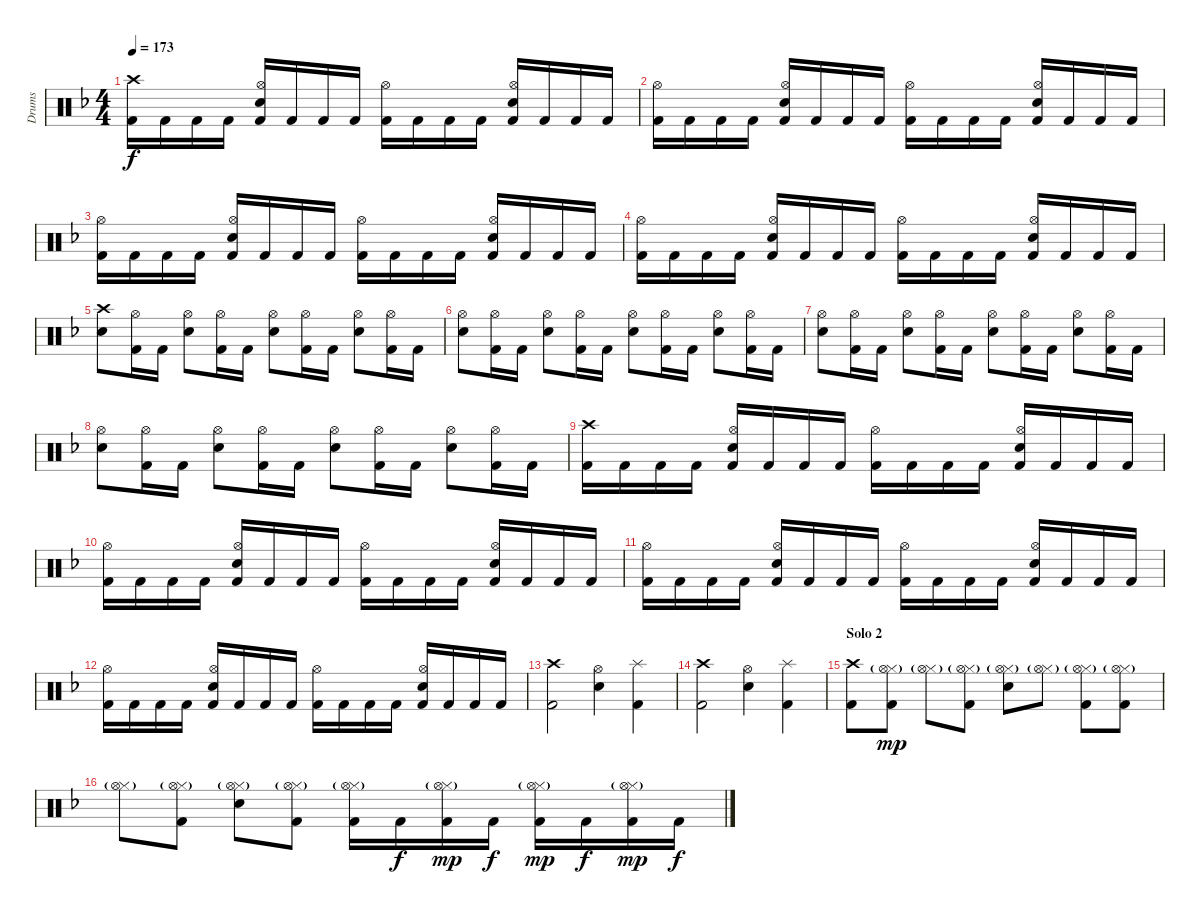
\track ("Drums" "Drums") {instrument percussion}
\staff {score}
\articulation defaults
\ts (4 4)
\tempo 173
\clef neutral
\ks dminor
("Crash high (hit)" "Kick (hit) 2").16{dy f} "Kick (hit) 2".16 "Kick (hit) 2".16 "Kick (hit) 2".16 ("Hi-Hat (open)" "Snare (hit) 2" "Kick (hit) 2").16 "Kick (hit) 2".16 "Kick (hit) 2".16 "Kick (hit) 2".16 ("Hi-Hat (open)" "Kick (hit) 2").16 "Kick (hit) 2".16 "Kick (hit) 2".16 "Kick (hit) 2".16 ("Hi-Hat (open)" "Snare (hit) 2" "Kick (hit) 2").16 "Kick (hit) 2".16 "Kick (hit) 2".16 "Kick (hit) 2".16 |
("Hi-Hat (open)" "Kick (hit) 2").16 "Kick (hit) 2".16 "Kick (hit) 2".16 "Kick (hit) 2".16 ("Hi-Hat (open)" "Snare (hit) 2" "Kick (hit) 2").16 "Kick (hit) 2".16 "Kick (hit) 2".16 "Kick (hit) 2".16 ("Hi-Hat (open)" "Kick (hit) 2").16 "Kick (hit) 2".16 "Kick (hit) 2".16 "Kick (hit) 2".16 ("Hi-Hat (open)" "Snare (hit) 2" "Kick (hit) 2").16 "Kick (hit) 2".16 "Kick (hit) 2".16 "Kick (hit) 2".16 |
("Hi-Hat (open)" "Kick (hit) 2").16 "Kick (hit) 2".16 "Kick (hit) 2".16 "Kick (hit) 2".16 ("Hi-Hat (open)" "Snare (hit) 2" "Kick (hit) 2").16 "Kick (hit) 2".16 "Kick (hit) 2".16 "Kick (hit) 2".16 ("Hi-Hat (open)" "Kick (hit) 2").16 "Kick (hit) 2".16 "Kick (hit) 2".16 "Kick (hit) 2".16 ("Hi-Hat (open)" "Snare (hit) 2" "Kick (hit) 2").16 "Kick (hit) 2".16 "Kick (hit) 2".16 "Kick (hit) 2".16 |
("Hi-Hat (open)" "Kick (hit) 2").16 "Kick (hit) 2".16 "Kick (hit) 2".16 "Kick (hit) 2".16 ("Hi-Hat (open)" "Snare (hit) 2" "Kick (hit) 2").16 "Kick (hit) 2".16 "Kick (hit) 2".16 "Kick (hit) 2".16 ("Hi-Hat (open)" "Kick (hit) 2").16 "Kick (hit) 2".16 "Kick (hit) 2".16 "Kick (hit) 2".16 ("Hi-Hat (open)" "Snare (hit) 2" "Kick (hit) 2").16 "Kick (hit) 2".16 "Kick (hit) 2".16 "Kick (hit) 2".16 |
("Crash high (hit)" "Snare (hit) 2").8 ("Hi-Hat (open)" "Kick (hit) 2").16 "Kick (hit) 2".16 ("Hi-Hat (open)" "Snare (hit) 2").8 ("Hi-Hat (open)" "Kick (hit) 2").16 "Kick (hit) 2".16 ("Hi-Hat (open)" "Snare (hit) 2").8 ("Hi-Hat (open)" "Kick (hit) 2").16 "Kick (hit) 2".16 ("Hi-Hat (open)" "Snare (hit) 2").8 ("Hi-Hat (open)" "Kick (hit) 2").16 "Kick (hit) 2".16 |
("Hi-Hat (open)" "Snare (hit) 2").8 ("Hi-Hat (open)" "Kick (hit) 2").16 "Kick (hit) 2".16 ("Hi-Hat (open)" "Snare (hit) 2").8 ("Hi-Hat (open)" "Kick (hit) 2").16 "Kick (hit) 2".16 ("Hi-Hat (open)" "Snare (hit) 2").8 ("Hi-Hat (open)" "Kick (hit) 2").16 "Kick (hit) 2".16 ("Hi-Hat (open)" "Snare (hit) 2").8 ("Hi-Hat (open)" "Kick (hit) 2").16 "Kick (hit) 2".16 |
("Hi-Hat (open)" "Snare (hit) 2").8 ("Hi-Hat (open)" "Kick (hit) 2").16 "Kick (hit) 2".16 ("Hi-Hat (open)" "Snare (hit) 2").8 ("Hi-Hat (open)" "Kick (hit) 2").16 "Kick (hit) 2".16 ("Hi-Hat (open)" "Snare (hit) 2").8 ("Hi-Hat (open)" "Kick (hit) 2").16 "Kick (hit) 2".16 ("Hi-Hat (open)" "Snare (hit) 2").8 ("Hi-Hat (open)" "Kick (hit) 2").16 "Kick (hit) 2".16 |
("Hi-Hat (open)" "Snare (hit) 2").8 ("Hi-Hat (open)" "Kick (hit) 2").16 "Kick (hit) 2".16 ("Hi-Hat (open)" "Snare (hit) 2").8 ("Hi-Hat (open)" "Kick (hit) 2").16 "Kick (hit) 2".16 ("Hi-Hat (open)" "Snare (hit) 2").8 ("Hi-Hat (open)" "Kick (hit) 2").16 "Kick (hit) 2".16 ("Hi-Hat (open)" "Snare (hit) 2").8 ("Hi-Hat (open)" "Kick (hit) 2").16 "Kick (hit) 2".16 |
("Crash high (hit)" "Kick (hit) 2").16 "Kick (hit) 2".16 "Kick (hit) 2".16 "Kick (hit) 2".16 ("Hi-Hat (open)" "Snare (hit) 2" "Kick (hit) 2").16 "Kick (hit) 2".16 "Kick (hit) 2".16 "Kick (hit) 2".16 ("Hi-Hat (open)" "Kick (hit) 2").16 "Kick (hit) 2".16 "Kick (hit) 2".16 "Kick (hit) 2".16 ("Hi-Hat (open)" "Snare (hit) 2" "Kick (hit) 2").16 "Kick (hit) 2".16 "Kick (hit) 2".16 "Kick (hit) 2".16 |
("Hi-Hat (open)" "Kick (hit) 2").16 "Kick (hit) 2".16 "Kick (hit) 2".16 "Kick (hit) 2".16 ("Hi-Hat (open)" "Snare (hit) 2" "Kick (hit) 2").16 "Kick (hit) 2".16 "Kick (hit) 2".16 "Kick (hit) 2".16 ("Hi-Hat (open)" "Kick (hit) 2").16 "Kick (hit) 2".16 "Kick (hit) 2".16 "Kick (hit) 2".16 ("Hi-Hat (open)" "Snare (hit) 2" "Kick (hit) 2").16 "Kick (hit) 2".16 "Kick (hit) 2".16 "Kick (hit) 2".16 |
("Hi-Hat (open)" "Kick (hit) 2").16 "Kick (hit) 2".16 "Kick (hit) 2".16 "Kick (hit) 2".16 ("Hi-Hat (open)" "Snare (hit) 2" "Kick (hit) 2").16 "Kick (hit) 2".16 "Kick (hit) 2".16 "Kick (hit) 2".16 ("Hi-Hat (open)" "Kick (hit) 2").16 "Kick (hit) 2".16 "Kick (hit) 2".16 "Kick (hit) 2".16 ("Hi-Hat (open)" "Snare (hit) 2" "Kick (hit) 2").16 "Kick (hit) 2".16 "Kick (hit) 2".16 "Kick (hit) 2".16 |
("Hi-Hat (open)" "Kick (hit) 2").16 "Kick (hit) 2".16 "Kick (hit) 2".16 "Kick (hit) 2".16 ("Hi-Hat (open)" "Snare (hit) 2" "Kick (hit) 2").16 "Kick (hit) 2".16 "Kick (hit) 2".16 "Kick (hit) 2".16 ("Hi-Hat (open)" "Kick (hit) 2").16 "Kick (hit) 2".16 "Kick (hit) 2".16 "Kick (hit) 2".16 ("Hi-Hat (open)" "Snare (hit) 2" "Kick (hit) 2").16 "Kick (hit) 2".16 "Kick (hit) 2".16 "Kick (hit) 2".16 |
("Crash high (hit)" "Kick (hit) 2").2 ("Hi-Hat (open)" "Snare (hit) 2").4 ("Splash (hit)" "Kick (hit) 2").4 |
("Crash high (hit)" "Kick (hit) 2").2 ("Hi-Hat (open)" "Snare (hit) 2").4 ("Splash (hit)" "Kick (hit) 2").4 |
\section ("" "Solo 2")
("Crash high (hit)" "Kick (hit) 2").8 ("Hi-Hat (closed)"{g} "Hi-Hat (open)"{g} "Kick (hit) 2").8{dy mp} ("Hi-Hat (closed)"{g} "Hi-Hat (open)"{g}).8 ("Hi-Hat (closed)"{g} "Hi-Hat (open)"{g} "Kick (hit) 2").8 ("Hi-Hat (closed)"{g} "Hi-Hat (open)"{g} "Snare (hit) 2").8 ("Hi-Hat (closed)"{g} "Hi-Hat (open)"{g}).8 ("Hi-Hat (closed)"{g} "Hi-Hat (open)"{g} "Kick (hit) 2").8 ("Hi-Hat (closed)"{g} "Hi-Hat (open)"{g} "Kick (hit) 2").8 |
("Hi-Hat (closed)"{g} "Hi-Hat (open)"{g}).8 ("Hi-Hat (closed)"{g} "Hi-Hat (open)"{g} "Kick (hit) 2").8 ("Hi-Hat (closed)"{g} "Hi-Hat (open)"{g} "Snare (hit) 2").8 ("Hi-Hat (closed)"{g} "Hi-Hat (open)"{g} "Kick (hit) 2").8 ("Hi-Hat (closed)"{g} "Hi-Hat (open)"{g} "Kick (hit) 2").16 "Kick (hit) 2".16{dy f} ("Hi-Hat (closed)"{g} "Hi-Hat (open)"{g} "Kick (hit) 2").16{dy mp} "Kick (hit) 2".16{dy f} ("Hi-Hat (closed)"{g} "Hi-Hat (open)"{g} "Kick (hit) 2").16{dy mp} "Kick (hit) 2".16{dy f} ("Hi-Hat (closed)"{g} "Hi-Hat (open)"{g} "Kick (hit) 2").16{dy mp} "Kick (hit) 2".16{dy f}
